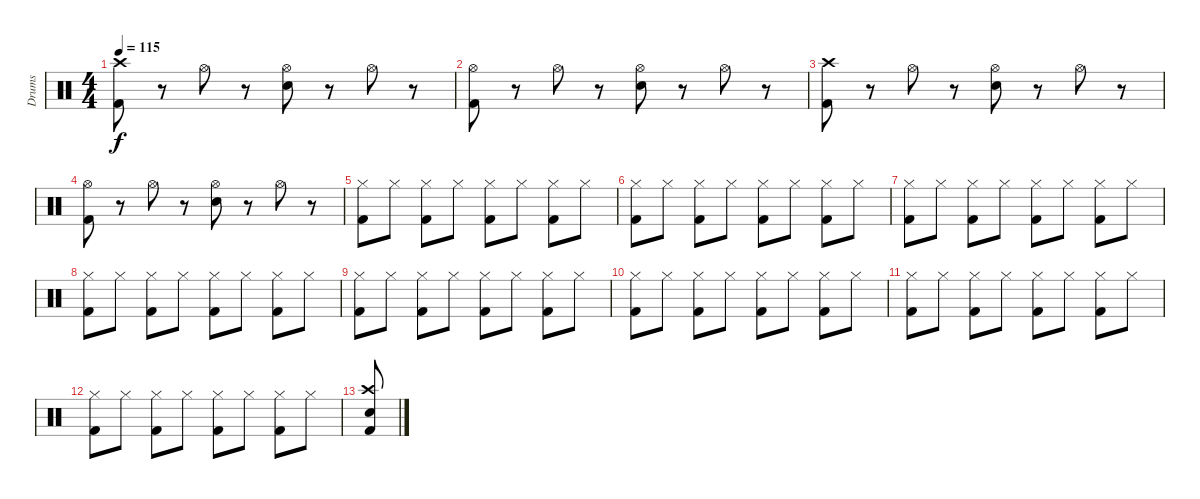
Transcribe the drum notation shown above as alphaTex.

\track ("Drums" "Drums") {instrument percussion}
\staff {score}
\articulation defaults
\ts (4 4)
\tempo 115
\clef neutral
\ks c
("Kick (hit) 2" "Crash high (hit)").8{dy f} r.8 "Hi-Hat (open)".8 r.8 ("Hi-Hat (open)" "Electric Snare (hit)").8 r.8 "Hi-Hat (open)".8 r.8 |
("Hi-Hat (open)" "Kick (hit) 2").8 r.8 "Hi-Hat (open)".8 r.8 ("Hi-Hat (open)" "Electric Snare (hit)").8 r.8 "Hi-Hat (open)".8 r.8 |
("Kick (hit) 2" "Crash high (hit)").8 r.8 "Hi-Hat (open)".8 r.8 ("Hi-Hat (open)" "Electric Snare (hit)").8 r.8 "Hi-Hat (open)".8 r.8 |
("Hi-Hat (open)" "Kick (hit) 2").8 r.8 "Hi-Hat (open)".8 r.8 ("Hi-Hat (open)" "Electric Snare (hit)").8 r.8 "Hi-Hat (open)".8 r.8 |
("Hi-Hat (closed)" "Kick (hit) 2").8 "Hi-Hat (closed)".8 ("Hi-Hat (closed)" "Kick (hit) 2").8 "Hi-Hat (closed)".8 ("Hi-Hat (closed)" "Kick (hit) 2").8 "Hi-Hat (closed)".8 ("Hi-Hat (closed)" "Kick (hit) 2").8 "Hi-Hat (closed)".8 |
("Hi-Hat (closed)" "Kick (hit) 2").8 "Hi-Hat (closed)".8 ("Hi-Hat (closed)" "Kick (hit) 2").8 "Hi-Hat (closed)".8 ("Hi-Hat (closed)" "Kick (hit) 2").8 "Hi-Hat (closed)".8 ("Hi-Hat (closed)" "Kick (hit) 2").8 "Hi-Hat (closed)".8 |
("Hi-Hat (closed)" "Kick (hit) 2").8 "Hi-Hat (closed)".8 ("Hi-Hat (closed)" "Kick (hit) 2").8 "Hi-Hat (closed)".8 ("Hi-Hat (closed)" "Kick (hit) 2").8 "Hi-Hat (closed)".8 ("Hi-Hat (closed)" "Kick (hit) 2").8 "Hi-Hat (closed)".8 |
("Hi-Hat (closed)" "Kick (hit) 2").8 "Hi-Hat (closed)".8 ("Hi-Hat (closed)" "Kick (hit) 2").8 "Hi-Hat (closed)".8 ("Hi-Hat (closed)" "Kick (hit) 2").8 "Hi-Hat (closed)".8 ("Hi-Hat (closed)" "Kick (hit) 2").8 "Hi-Hat (closed)".8 |
("Hi-Hat (closed)" "Kick (hit) 2").8 "Hi-Hat (closed)".8 ("Hi-Hat (closed)" "Kick (hit) 2").8 "Hi-Hat (closed)".8 ("Hi-Hat (closed)" "Kick (hit) 2").8 "Hi-Hat (closed)".8 ("Hi-Hat (closed)" "Kick (hit) 2").8 "Hi-Hat (closed)".8 |
("Hi-Hat (closed)" "Kick (hit) 2").8 "Hi-Hat (closed)".8 ("Hi-Hat (closed)" "Kick (hit) 2").8 "Hi-Hat (closed)".8 ("Hi-Hat (closed)" "Kick (hit) 2").8 "Hi-Hat (closed)".8 ("Hi-Hat (closed)" "Kick (hit) 2").8 "Hi-Hat (closed)".8 |
("Hi-Hat (closed)" "Kick (hit) 2").8 "Hi-Hat (closed)".8 ("Hi-Hat (closed)" "Kick (hit) 2").8 "Hi-Hat (closed)".8 ("Hi-Hat (closed)" "Kick (hit) 2").8 "Hi-Hat (closed)".8 ("Hi-Hat (closed)" "Kick (hit) 2").8 "Hi-Hat (closed)".8 |
("Hi-Hat (closed)" "Kick (hit) 2").8 "Hi-Hat (closed)".8 ("Hi-Hat (closed)" "Kick (hit) 2").8 "Hi-Hat (closed)".8 ("Hi-Hat (closed)" "Kick (hit) 2").8 "Hi-Hat (closed)".8 ("Hi-Hat (closed)" "Kick (hit) 2").8 "Hi-Hat (closed)".8 |
("Electric Snare (hit)" "Kick (hit) 2" "Crash high (hit)").8
